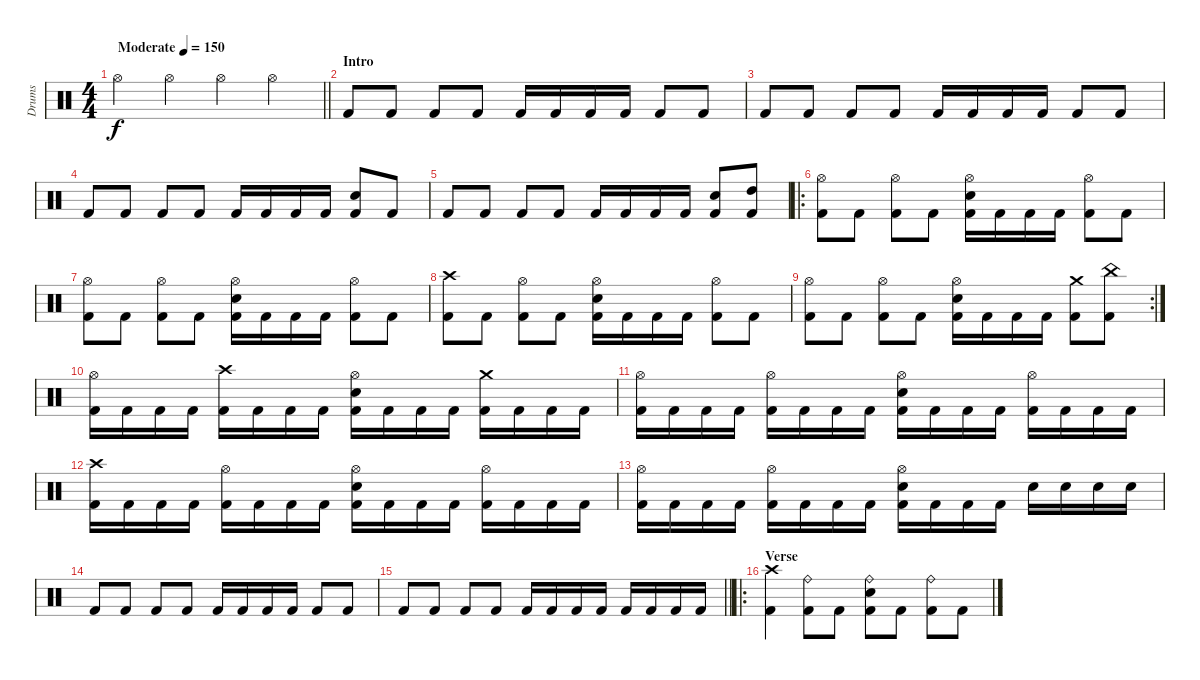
\track ("Drums" "Drums") {instrument percussion}
\staff {score}
\articulation defaults
\ts (4 4)
\tempo (150 "Moderate")
\clef neutral
\barLineRight lightlight
\ks c "Hi-Hat (open)".4{dy f} "Hi-Hat (open)".4 "Hi-Hat (open)".4 "Hi-Hat (open)".4
|
\section ("" "Intro")
"Kick (hit) 2".8 "Kick (hit) 2".8 "Kick (hit) 2".8 "Kick (hit) 2".8 "Kick (hit) 2".16 "Kick (hit) 2".16 "Kick (hit) 2".16 "Kick (hit) 2".16 "Kick (hit) 2".8 "Kick (hit) 2".8 |
"Kick (hit) 2".8 "Kick (hit) 2".8 "Kick (hit) 2".8 "Kick (hit) 2".8 "Kick (hit) 2".16 "Kick (hit) 2".16 "Kick (hit) 2".16 "Kick (hit) 2".16 "Kick (hit) 2".8 "Kick (hit) 2".8 |
"Kick (hit) 2".8 "Kick (hit) 2".8 "Kick (hit) 2".8 "Kick (hit) 2".8 "Kick (hit) 2".16 "Kick (hit) 2".16 "Kick (hit) 2".16 "Kick (hit) 2".16 ("Snare (hit) 2" "Kick (hit) 2").8 "Kick (hit) 2".8 |
"Kick (hit) 2".8 "Kick (hit) 2".8 "Kick (hit) 2".8 "Kick (hit) 2".8 "Kick (hit) 2".16 "Kick (hit) 2".16 "Kick (hit) 2".16 "Kick (hit) 2".16 ("Snare (hit) 2" "Kick (hit) 2").8 ("High Tom (hit)" "Kick (hit) 2").8 |
\ro
("Hi-Hat (open)" "Kick (hit) 2").8 "Kick (hit) 2".8 ("Hi-Hat (open)" "Kick (hit) 2").8 "Kick (hit) 2".8 ("Hi-Hat (open)" "Snare (hit) 2" "Kick (hit) 2").16 "Kick (hit) 2".16 "Kick (hit) 2".16 "Kick (hit) 2".16 ("Hi-Hat (open)" "Kick (hit) 2").8 "Kick (hit) 2".8 |
("Hi-Hat (open)" "Kick (hit) 2").8 "Kick (hit) 2".8 ("Hi-Hat (open)" "Kick (hit) 2").8 "Kick (hit) 2".8 ("Hi-Hat (open)" "Snare (hit) 2" "Kick (hit) 2").16 "Kick (hit) 2".16 "Kick (hit) 2".16 "Kick (hit) 2".16 ("Hi-Hat (open)" "Kick (hit) 2").8 "Kick (hit) 2".8 |
("Crash high (hit)" "Kick (hit) 2").8 "Kick (hit) 2".8 ("Hi-Hat (open)" "Kick (hit) 2").8 "Kick (hit) 2".8 ("Hi-Hat (open)" "Snare (hit) 2" "Kick (hit) 2").16 "Kick (hit) 2".16 "Kick (hit) 2".16 "Kick (hit) 2".16 ("Hi-Hat (open)" "Kick (hit) 2").8 "Kick (hit) 2".8 |
\rc 2
("Hi-Hat (open)" "Kick (hit) 2").8 "Kick (hit) 2".8 ("Hi-Hat (open)" "Kick (hit) 2").8 "Kick (hit) 2".8 ("Hi-Hat (open)" "Snare (hit) 2" "Kick (hit) 2").16 "Kick (hit) 2".16 "Kick (hit) 2".16 "Kick (hit) 2".16 ("Crash medium (hit)" "Kick (hit) 2").8 ("China (hit)" "Kick (hit) 2").8 |
("Hi-Hat (open)" "Kick (hit) 2").16 "Kick (hit) 2".16 "Kick (hit) 2".16 "Kick (hit) 2".16 ("Crash high (hit)" "Kick (hit) 2").16 "Kick (hit) 2".16 "Kick (hit) 2".16 "Kick (hit) 2".16 ("Hi-Hat (open)" "Snare (hit) 2" "Kick (hit) 2").16 "Kick (hit) 2".16 "Kick (hit) 2".16 "Kick (hit) 2".16 ("Crash medium (hit)" "Kick (hit) 2").16 "Kick (hit) 2".16 "Kick (hit) 2".16 "Kick (hit) 2".16 |
("Hi-Hat (open)" "Kick (hit) 2").16 "Kick (hit) 2".16 "Kick (hit) 2".16 "Kick (hit) 2".16 ("Hi-Hat (open)" "Kick (hit) 2").16 "Kick (hit) 2".16 "Kick (hit) 2".16 "Kick (hit) 2".16 ("Hi-Hat (open)" "Snare (hit) 2" "Kick (hit) 2").16 "Kick (hit) 2".16 "Kick (hit) 2".16 "Kick (hit) 2".16 ("Hi-Hat (open)" "Kick (hit) 2").16 "Kick (hit) 2".16 "Kick (hit) 2".16 "Kick (hit) 2".16 |
("Crash high (hit)" "Kick (hit) 2").16 "Kick (hit) 2".16 "Kick (hit) 2".16 "Kick (hit) 2".16 ("Hi-Hat (open)" "Kick (hit) 2").16 "Kick (hit) 2".16 "Kick (hit) 2".16 "Kick (hit) 2".16 ("Hi-Hat (open)" "Snare (hit) 2" "Kick (hit) 2").16 "Kick (hit) 2".16 "Kick (hit) 2".16 "Kick (hit) 2".16 ("Hi-Hat (open)" "Kick (hit) 2").16 "Kick (hit) 2".16 "Kick (hit) 2".16 "Kick (hit) 2".16 |
("Hi-Hat (open)" "Kick (hit) 2").16 "Kick (hit) 2".16 "Kick (hit) 2".16 "Kick (hit) 2".16 ("Hi-Hat (open)" "Kick (hit) 2").16 "Kick (hit) 2".16 "Kick (hit) 2".16 "Kick (hit) 2".16 ("Hi-Hat (open)" "Snare (hit) 2" "Kick (hit) 2").16 "Kick (hit) 2".16 "Kick (hit) 2".16 "Kick (hit) 2".16 "Snare (hit) 2".16 "Snare (hit) 2".16 "Snare (hit) 2".16 "Snare (hit) 2".16 |
"Kick (hit) 2".8 "Kick (hit) 2".8 "Kick (hit) 2".8 "Kick (hit) 2".8 "Kick (hit) 2".16 "Kick (hit) 2".16 "Kick (hit) 2".16 "Kick (hit) 2".16 "Kick (hit) 2".8 "Kick (hit) 2".8 |
\barLineRight lightlight "Kick (hit) 2".8 "Kick (hit) 2".8 "Kick (hit) 2".8 "Kick (hit) 2".8 "Kick (hit) 2".16 "Kick (hit) 2".16 "Kick (hit) 2".16 "Kick (hit) 2".16 "Kick (hit) 2".16 "Kick (hit) 2".16 "Kick (hit) 2".16 "Kick (hit) 2".16
|
\ro
\section ("" "Verse")
("Crash high (hit)" "Kick (hit) 2").4 ("Ride (bell)" "Kick (hit) 2").8 "Kick (hit) 2".8 ("Ride (bell)" "Snare (hit) 2" "Kick (hit) 2").8 "Kick (hit) 2".8 ("Ride (bell)" "Kick (hit) 2").8 "Kick (hit) 2".8
